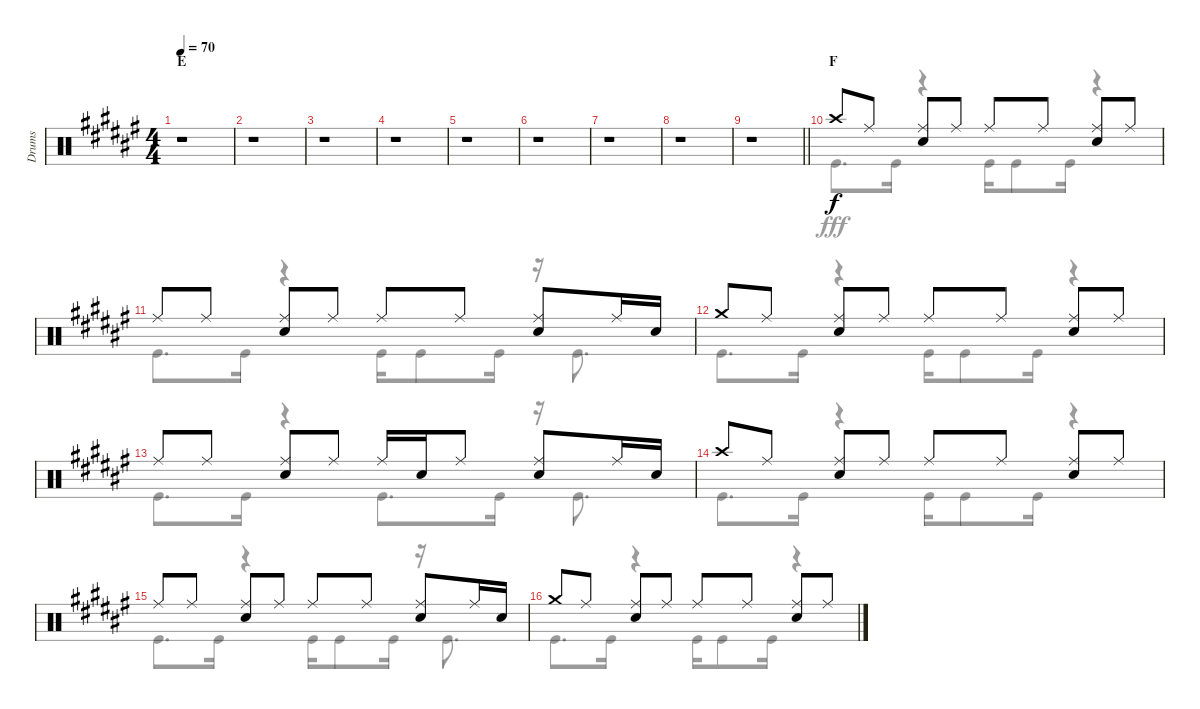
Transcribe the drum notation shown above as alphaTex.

\track ("Drums" "Drums") {instrument percussion}
\staff {score}
\articulation defaults
\voice
\ts (4 4)
\section ("" "E")
\tempo 70
\clef neutral
\ks f#
r.1{dy f} |
r.1 |
r.1 |
r.1 |
r.1 |
r.1 |
r.1 |
r.1 |
\barLineRight lightlight
r.1 |
\section ("" "F")
"Crash high (hit)".8 "Ride (middle)".8 ("Ride (middle)" "Snare (hit) 2").8 "Ride (middle)".8 "Ride (middle)".8 "Ride (middle)".8 ("Ride (middle)" "Snare (hit) 2").8 "Ride (middle)".8 |
"Ride (middle)".8 "Ride (middle)".8 ("Ride (middle)" "Snare (hit) 2").8 "Ride (middle)".8 "Ride (middle)".8 "Ride (middle)".8 ("Ride (middle)" "Snare (hit) 2").8 "Ride (middle)".16 "Snare (hit) 2".16 |
"Crash medium (hit)".8 "Ride (middle)".8 ("Ride (middle)" "Snare (hit) 2").8 "Ride (middle)".8 "Ride (middle)".8 "Ride (middle)".8 ("Ride (middle)" "Snare (hit) 2").8 "Ride (middle)".8 |
"Ride (middle)".8 "Ride (middle)".8 ("Ride (middle)" "Snare (hit) 2").8 "Ride (middle)".8 "Ride (middle)".16 "Snare (hit) 2".16 "Ride (middle)".8 ("Ride (middle)" "Snare (hit) 2").8 "Ride (middle)".16 "Snare (hit) 2".16 |
"Crash high (hit)".8 "Ride (middle)".8 ("Ride (middle)" "Snare (hit) 2").8 "Ride (middle)".8 "Ride (middle)".8 "Ride (middle)".8 ("Ride (middle)" "Snare (hit) 2").8 "Ride (middle)".8 |
"Ride (middle)".8 "Ride (middle)".8 ("Ride (middle)" "Snare (hit) 2").8 "Ride (middle)".8 "Ride (middle)".8 "Ride (middle)".8 ("Ride (middle)" "Snare (hit) 2").8 "Ride (middle)".16 "Snare (hit) 2".16 |
"Crash medium (hit)".8 "Ride (middle)".8 ("Ride (middle)" "Snare (hit) 2").8 "Ride (middle)".8 "Ride (middle)".8 "Ride (middle)".8 ("Ride (middle)" "Snare (hit) 2").8 "Ride (middle)".8
\voice
\clef neutral
\ottava regular
\simile none
\ks f#
r.1{dy fff} |
r.1 |
r.1 |
r.1 |
r.1 |
r.1 |
r.1 |
r.1 |
\barLineRight lightlight
r.1 |
"Kick (hit)".8{d} "Kick (hit)".16 r.4 "Kick (hit)".16 "Kick (hit)".8 "Kick (hit)".16 r.4 |
"Kick (hit)".8{d} "Kick (hit)".16 r.4 "Kick (hit)".16 "Kick (hit)".8 "Kick (hit)".16 r.16 "Kick (hit)".8{d} |
"Kick (hit)".8{d} "Kick (hit)".16 r.4 "Kick (hit)".16 "Kick (hit)".8 "Kick (hit)".16 r.4 |
"Kick (hit)".8{d} "Kick (hit)".16 r.4 "Kick (hit)".8{d} "Kick (hit)".16 r.16 "Kick (hit)".8{d} |
"Kick (hit)".8{d} "Kick (hit)".16 r.4 "Kick (hit)".16 "Kick (hit)".8 "Kick (hit)".16 r.4 |
"Kick (hit)".8{d} "Kick (hit)".16 r.4 "Kick (hit)".16 "Kick (hit)".8 "Kick (hit)".16 r.16 "Kick (hit)".8{d} |
"Kick (hit)".8{d} "Kick (hit)".16 r.4 "Kick (hit)".16 "Kick (hit)".8 "Kick (hit)".16 r.4
